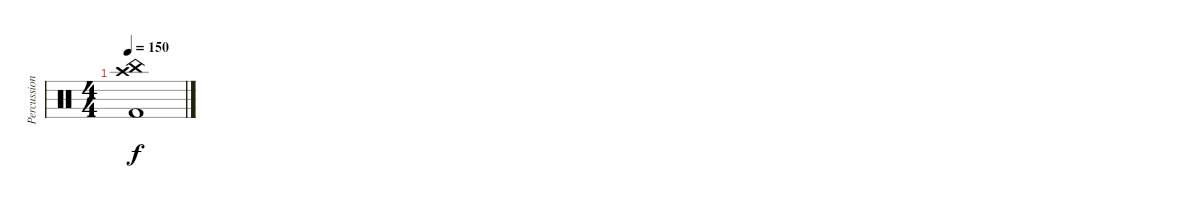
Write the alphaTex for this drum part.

\track ("Percussion" "Percussion") {instrument percussion}
\staff {score}
\articulation defaults
\ts (4 4)
\tempo 150
\clef neutral
\ks c
("Crash high (hit)" "China (hit)" "Kick (hit) 2").1{dy f}
